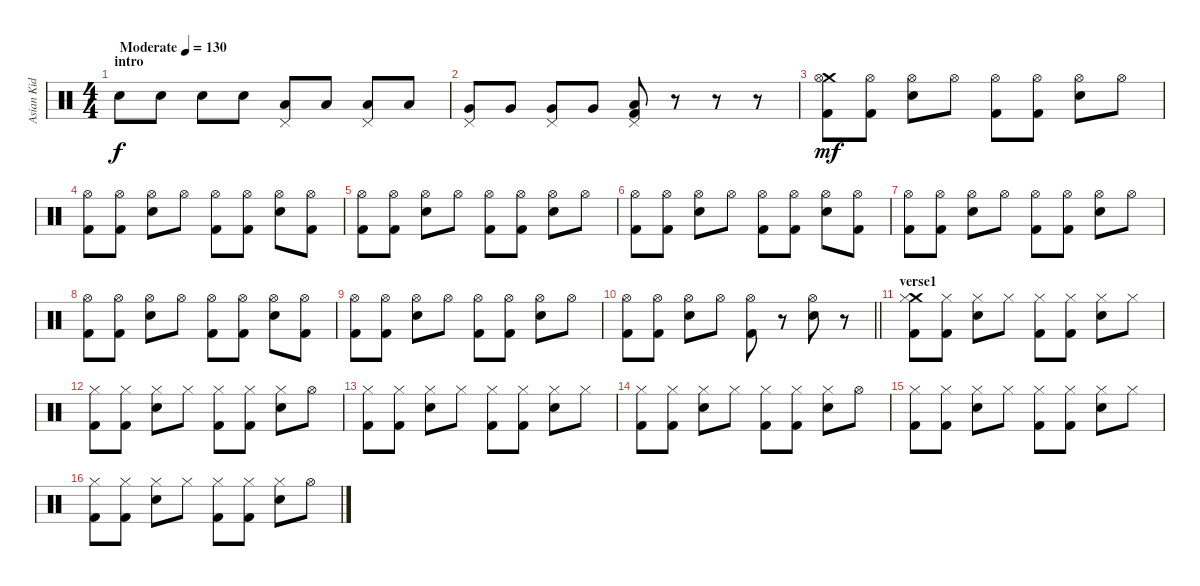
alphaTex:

\track ("Asian Kid" "Asian Kid") {instrument percussion}
\staff {score}
\articulation defaults
\ts (4 4)
\section ("" "intro")
\tempo (130 "Moderate")
\clef neutral
\ks c "Electric Snare (hit)".8{dy f} "Electric Snare (hit)".8 "Electric Snare (hit)".8 "Electric Snare (hit)".8
("Pedal Hi-Hat (hit)" "Low Tom (hit)").8 "Low Tom (hit)".8 ("Pedal Hi-Hat (hit)" "Low Tom (hit)").8 "Low Tom (hit)".8 |
("Pedal Hi-Hat (hit)" "Very Low Tom (hit)").8 "Very Low Tom (hit)".8 ("Pedal Hi-Hat (hit)" "Very Low Tom (hit)").8 "Very Low Tom (hit)".8 ("Pedal Hi-Hat (hit)" "Low Floor Tom (hit)" "Kick (hit) 2").8 r.8 r.8 r.8 |
("Crash medium (hit)" "Hi-Hat (open)" "Kick (hit) 2").8{dy mf} ("Hi-Hat (open)" "Kick (hit) 2").8 ("Hi-Hat (open)" "Electric Snare (hit)").8 "Hi-Hat (open)".8 ("Hi-Hat (open)" "Kick (hit) 2").8 ("Hi-Hat (open)" "Kick (hit) 2").8 ("Hi-Hat (open)" "Electric Snare (hit)").8 "Hi-Hat (open)".8 |
("Hi-Hat (open)" "Kick (hit) 2").8 ("Hi-Hat (open)" "Kick (hit) 2").8 ("Hi-Hat (open)" "Electric Snare (hit)").8 "Hi-Hat (open)".8 ("Hi-Hat (open)" "Kick (hit) 2").8 ("Hi-Hat (open)" "Kick (hit) 2").8 ("Hi-Hat (open)" "Electric Snare (hit)").8 ("Hi-Hat (open)" "Kick (hit) 2").8 |
("Hi-Hat (open)" "Kick (hit) 2").8 ("Hi-Hat (open)" "Kick (hit) 2").8 ("Hi-Hat (open)" "Electric Snare (hit)").8 "Hi-Hat (open)".8 ("Hi-Hat (open)" "Kick (hit) 2").8 ("Hi-Hat (open)" "Kick (hit) 2").8 ("Hi-Hat (open)" "Electric Snare (hit)").8 "Hi-Hat (open)".8 |
("Hi-Hat (open)" "Kick (hit) 2").8 ("Hi-Hat (open)" "Kick (hit) 2").8 ("Hi-Hat (open)" "Electric Snare (hit)").8 "Hi-Hat (open)".8 ("Hi-Hat (open)" "Kick (hit) 2").8 ("Hi-Hat (open)" "Kick (hit) 2").8 ("Hi-Hat (open)" "Electric Snare (hit)").8 ("Hi-Hat (open)" "Kick (hit) 2").8 |
("Hi-Hat (open)" "Kick (hit) 2").8 ("Hi-Hat (open)" "Kick (hit) 2").8 ("Hi-Hat (open)" "Electric Snare (hit)").8 "Hi-Hat (open)".8 ("Hi-Hat (open)" "Kick (hit) 2").8 ("Hi-Hat (open)" "Kick (hit) 2").8 ("Hi-Hat (open)" "Electric Snare (hit)").8 "Hi-Hat (open)".8 |
("Hi-Hat (open)" "Kick (hit) 2").8 ("Hi-Hat (open)" "Kick (hit) 2").8 ("Hi-Hat (open)" "Electric Snare (hit)").8 "Hi-Hat (open)".8 ("Hi-Hat (open)" "Kick (hit) 2").8 ("Hi-Hat (open)" "Kick (hit) 2").8 ("Hi-Hat (open)" "Electric Snare (hit)").8 ("Hi-Hat (open)" "Kick (hit) 2").8 |
("Hi-Hat (open)" "Kick (hit) 2").8 ("Hi-Hat (open)" "Kick (hit) 2").8 ("Hi-Hat (open)" "Electric Snare (hit)").8 "Hi-Hat (open)".8 ("Hi-Hat (open)" "Kick (hit) 2").8 ("Hi-Hat (open)" "Kick (hit) 2").8 ("Hi-Hat (open)" "Electric Snare (hit)").8 "Hi-Hat (open)".8 |
\barLineRight lightlight
("Hi-Hat (open)" "Kick (hit) 2").8 ("Hi-Hat (open)" "Kick (hit) 2").8 ("Hi-Hat (open)" "Electric Snare (hit)").8 "Hi-Hat (open)".8 ("Hi-Hat (open)" "Kick (hit) 2").8 r.8 ("Hi-Hat (open)" "Electric Snare (hit)").8 r.8 |
\section ("" "verse1")
("Crash medium (hit)" "Hi-Hat (closed)" "Kick (hit) 2").8 ("Hi-Hat (closed)" "Kick (hit) 2").8 ("Hi-Hat (closed)" "Electric Snare (hit)").8 "Hi-Hat (closed)".8 ("Hi-Hat (closed)" "Kick (hit) 2").8 ("Hi-Hat (closed)" "Kick (hit) 2").8 ("Hi-Hat (closed)" "Electric Snare (hit)").8 "Hi-Hat (closed)".8 |
("Hi-Hat (closed)" "Kick (hit) 2").8 ("Hi-Hat (closed)" "Kick (hit) 2").8 ("Hi-Hat (closed)" "Electric Snare (hit)").8 "Hi-Hat (closed)".8 ("Hi-Hat (closed)" "Kick (hit) 2").8 ("Hi-Hat (closed)" "Kick (hit) 2").8 ("Hi-Hat (closed)" "Electric Snare (hit)").8 "Hi-Hat (open)".8 |
("Hi-Hat (closed)" "Kick (hit) 2").8 ("Hi-Hat (closed)" "Kick (hit) 2").8 ("Hi-Hat (closed)" "Electric Snare (hit)").8 "Hi-Hat (closed)".8 ("Hi-Hat (closed)" "Kick (hit) 2").8 ("Hi-Hat (closed)" "Kick (hit) 2").8 ("Hi-Hat (closed)" "Electric Snare (hit)").8 "Hi-Hat (closed)".8 |
("Hi-Hat (closed)" "Kick (hit) 2").8 ("Hi-Hat (closed)" "Kick (hit) 2").8 ("Hi-Hat (closed)" "Electric Snare (hit)").8 "Hi-Hat (closed)".8 ("Hi-Hat (closed)" "Kick (hit) 2").8 ("Hi-Hat (closed)" "Kick (hit) 2").8 ("Hi-Hat (closed)" "Electric Snare (hit)").8 "Hi-Hat (open)".8 |
("Hi-Hat (closed)" "Kick (hit) 2").8 ("Hi-Hat (closed)" "Kick (hit) 2").8 ("Hi-Hat (closed)" "Electric Snare (hit)").8 "Hi-Hat (closed)".8 ("Hi-Hat (closed)" "Kick (hit) 2").8 ("Hi-Hat (closed)" "Kick (hit) 2").8 ("Hi-Hat (closed)" "Electric Snare (hit)").8 "Hi-Hat (closed)".8 |
("Hi-Hat (closed)" "Kick (hit) 2").8 ("Hi-Hat (closed)" "Kick (hit) 2").8 ("Hi-Hat (closed)" "Electric Snare (hit)").8 "Hi-Hat (closed)".8 ("Hi-Hat (closed)" "Kick (hit) 2").8 ("Hi-Hat (closed)" "Kick (hit) 2").8 ("Hi-Hat (closed)" "Electric Snare (hit)").8 "Hi-Hat (open)".8
